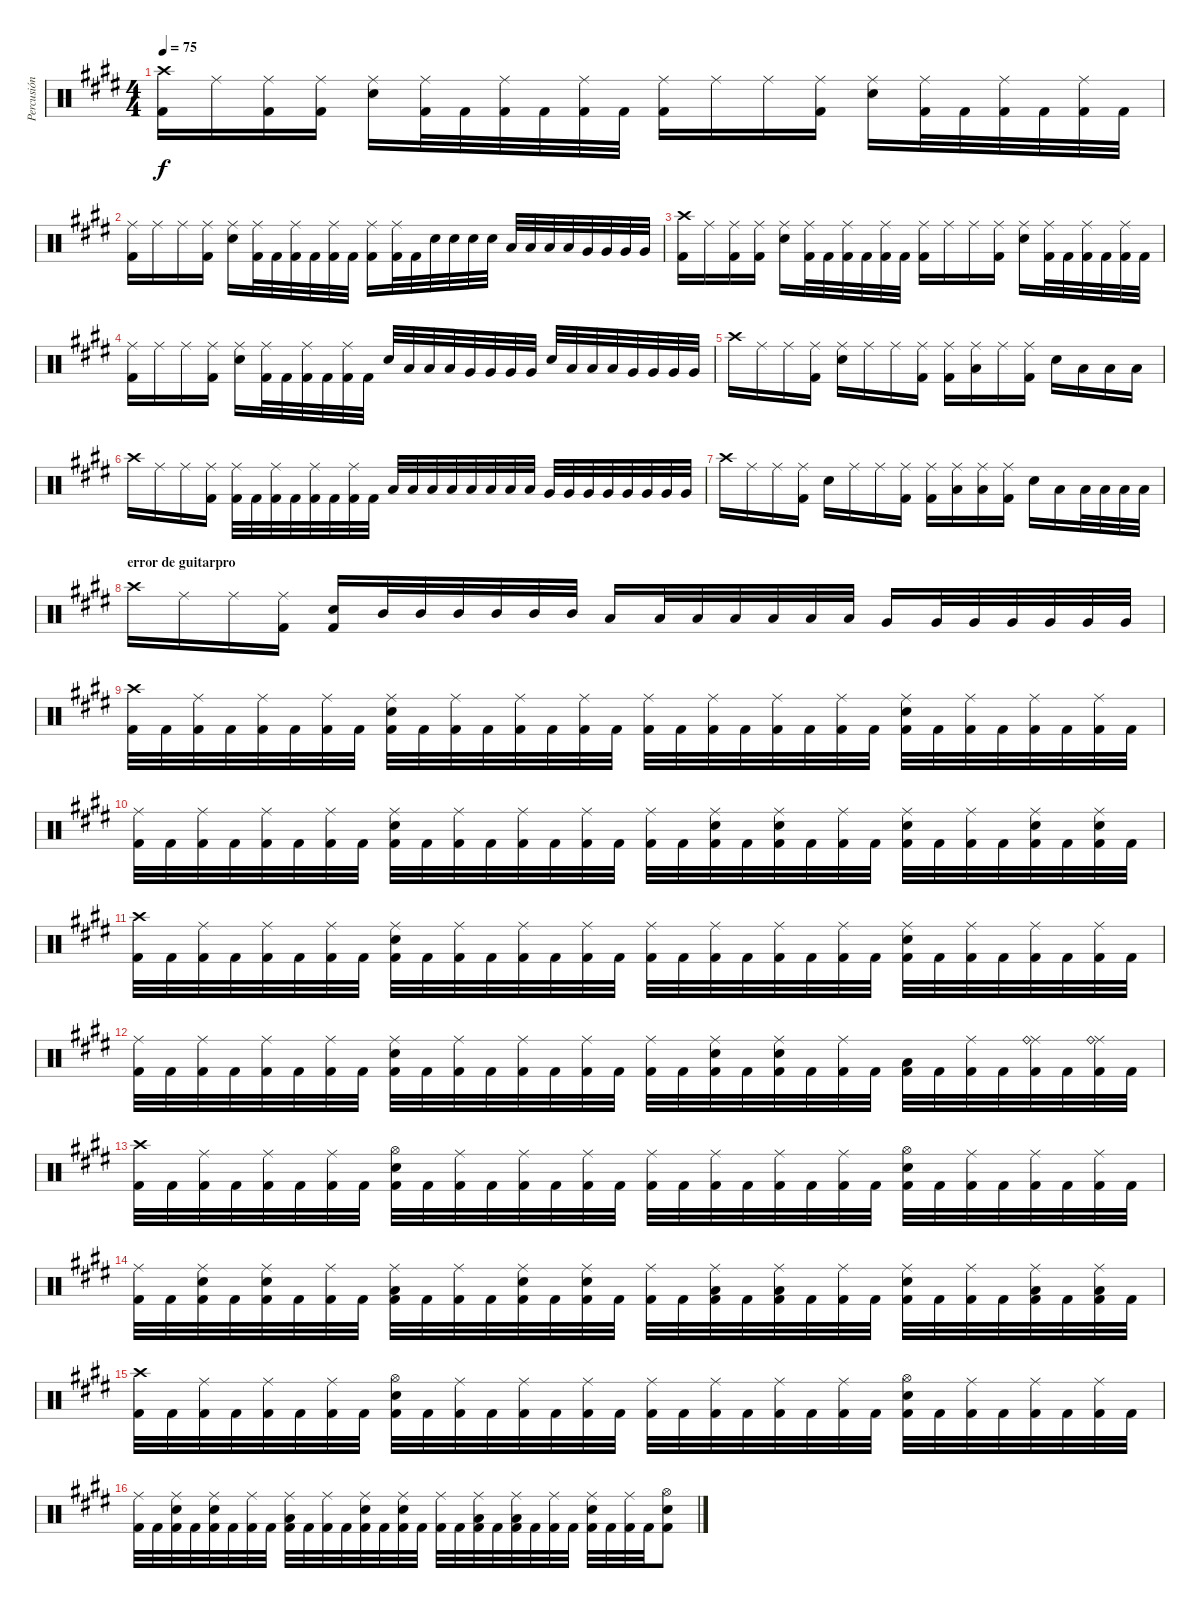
\track ("Percusión" "Percusión") {instrument percussion}
\staff {score}
\articulation defaults
\ts (4 4)
\tempo 75
\clef neutral
\ks e
("Crash high (hit)" "Kick (hit) 2").16{dy f} "Ride (middle)".16 ("Ride (middle)" "Kick (hit) 2").16 ("Ride (middle)" "Kick (hit) 2").16 ("Ride (middle)" "Snare (hit) 2").16 ("Ride (middle)" "Kick (hit) 2").32 "Kick (hit) 2".32 ("Ride (middle)" "Kick (hit) 2").32 "Kick (hit) 2".32 ("Ride (middle)" "Kick (hit) 2").32 "Kick (hit) 2".32 ("Ride (middle)" "Kick (hit) 2").16 "Ride (middle)".16 "Ride (middle)".16 ("Ride (middle)" "Kick (hit) 2").16 ("Ride (middle)" "Snare (hit) 2").16 ("Ride (middle)" "Kick (hit) 2").32 "Kick (hit) 2".32 ("Ride (middle)" "Kick (hit) 2").32 "Kick (hit) 2".32 ("Ride (middle)" "Kick (hit) 2").32 "Kick (hit) 2".32 |
("Ride (middle)" "Kick (hit) 2").16 "Ride (middle)".16 "Ride (middle)".16 ("Ride (middle)" "Kick (hit) 2").16 ("Ride (middle)" "Snare (hit) 2").16 ("Ride (middle)" "Kick (hit) 2").32 "Kick (hit) 2".32 ("Ride (middle)" "Kick (hit) 2").32 "Kick (hit) 2".32 ("Ride (middle)" "Kick (hit) 2").32 "Kick (hit) 2".32 ("Ride (middle)" "Kick (hit) 2").16 ("Ride (middle)" "Kick (hit) 2").32 "Kick (hit) 2".32 "Snare (hit) 2".32 "Snare (hit) 2".32 "Snare (hit) 2".32 "Snare (hit) 2".32 "Low Tom (hit)".32 "Low Tom (hit)".32 "Low Tom (hit)".32 "Low Tom (hit)".32 "Very Low Tom (hit)".32 "Very Low Tom (hit)".32 "Very Low Tom (hit)".32 "Very Low Tom (hit)".32 |
("Crash high (hit)" "Kick (hit) 2").16 "Ride (middle)".16 ("Ride (middle)" "Kick (hit) 2").16 ("Ride (middle)" "Kick (hit) 2").16 ("Ride (middle)" "Snare (hit) 2").16 ("Ride (middle)" "Kick (hit) 2").32 "Kick (hit) 2".32 ("Ride (middle)" "Kick (hit) 2").32 "Kick (hit) 2".32 ("Ride (middle)" "Kick (hit) 2").32 "Kick (hit) 2".32 ("Ride (middle)" "Kick (hit) 2").16 "Ride (middle)".16 "Ride (middle)".16 ("Ride (middle)" "Kick (hit) 2").16 ("Ride (middle)" "Snare (hit) 2").16 ("Ride (middle)" "Kick (hit) 2").32 "Kick (hit) 2".32 ("Ride (middle)" "Kick (hit) 2").32 "Kick (hit) 2".32 ("Ride (middle)" "Kick (hit) 2").32 "Kick (hit) 2".32 |
("Ride (middle)" "Kick (hit) 2").16 "Ride (middle)".16 "Ride (middle)".16 ("Ride (middle)" "Kick (hit) 2").16 ("Ride (middle)" "Snare (hit) 2").16 ("Ride (middle)" "Kick (hit) 2").32 "Kick (hit) 2".32 ("Ride (middle)" "Kick (hit) 2").32 "Kick (hit) 2".32 ("Ride (middle)" "Kick (hit) 2").32 "Kick (hit) 2".32 "Snare (hit) 2".32 "Low Tom (hit)".32 "Low Tom (hit)".32 "Low Tom (hit)".32 "Very Low Tom (hit)".32 "Very Low Tom (hit)".32 "Very Low Tom (hit)".32 "Very Low Tom (hit)".32 "Snare (hit) 2".32 "Low Tom (hit)".32 "Low Tom (hit)".32 "Low Tom (hit)".32 "Very Low Tom (hit)".32 "Very Low Tom (hit)".32 "Very Low Tom (hit)".32 "Very Low Tom (hit)".32 |
"Crash high (hit)".16 "Ride (middle)".16 "Ride (middle)".16 ("Ride (middle)" "Kick (hit) 2").16 ("Electric Snare (hit)" "Ride (middle)").16 "Ride (middle)".16 "Ride (middle)".16 ("Ride (middle)" "Kick (hit) 2").16 ("Ride (middle)" "Kick (hit) 2").16 ("Low Tom (hit)" "Ride (middle)").16 "Ride (middle)".16 ("Ride (middle)" "Kick (hit) 2").16 "Electric Snare (hit)".16 "Low Tom (hit)".16 "Low Tom (hit)".16 "Low Tom (hit)".16 |
"Crash high (hit)".16 "Ride (middle)".16 "Ride (middle)".16 ("Ride (middle)" "Kick (hit) 2").16 ("Ride (middle)" "Kick (hit) 2").32 "Kick (hit) 2".32 ("Ride (middle)" "Kick (hit) 2").32 "Kick (hit) 2".32 ("Ride (middle)" "Kick (hit) 2").32 "Kick (hit) 2".32 ("Ride (middle)" "Kick (hit) 2").32 "Kick (hit) 2".32 "Low Tom (hit)".32 "Low Tom (hit)".32 "Low Tom (hit)".32 "Low Tom (hit)".32 "Low Tom (hit)".32 "Low Tom (hit)".32 "Low Tom (hit)".32 "Low Tom (hit)".32 "Very Low Tom (hit)".32 "Very Low Tom (hit)".32 "Very Low Tom (hit)".32 "Very Low Tom (hit)".32 "Very Low Tom (hit)".32 "Very Low Tom (hit)".32 "Very Low Tom (hit)".32 "Very Low Tom (hit)".32 |
"Crash high (hit)".16 "Ride (middle)".16 "Ride (middle)".16 ("Ride (middle)" "Kick (hit) 2").16 "Electric Snare (hit)".16 "Ride (middle)".16 "Ride (middle)".16 ("Ride (middle)" "Kick (hit) 2").16 ("Ride (middle)" "Kick (hit) 2").16 ("Low Tom (hit)" "Ride (middle)").16 ("Low Tom (hit)" "Ride (middle)").16 ("Ride (middle)" "Kick (hit) 2").16 "Electric Snare (hit)".16 "Low Tom (hit)".16 "Low Tom (hit)".32 "Low Tom (hit)".32 "Low Tom (hit)".32 "Low Tom (hit)".32 |
\section ("" "error de guitarpro")
"Crash high (hit)".16 "Ride (middle)".16 "Ride (middle)".16 ("Ride (middle)" "Kick (hit) 2").16 ("Electric Snare (hit)" "Kick (hit) 2").16 "Mid Tom (hit)".32 "Mid Tom (hit)".32 "Mid Tom (hit)".32 "Mid Tom (hit)".32 "Mid Tom (hit)".32 "Mid Tom (hit)".32 "Low Tom (hit)".16 "Low Tom (hit)".32 "Low Tom (hit)".32 "Low Tom (hit)".32 "Low Tom (hit)".32 "Low Tom (hit)".32 "Low Tom (hit)".32 "Very Low Tom (hit)".16 "Very Low Tom (hit)".32 "Very Low Tom (hit)".32 "Very Low Tom (hit)".32 "Very Low Tom (hit)".32 "Very Low Tom (hit)".32 "Very Low Tom (hit)".32 |
("Crash high (hit)" "Kick (hit) 2").32 "Kick (hit) 2".32 ("Ride (middle)" "Kick (hit) 2").32 "Kick (hit) 2".32 ("Ride (middle)" "Kick (hit) 2").32 "Kick (hit) 2".32 ("Ride (middle)" "Kick (hit) 2").32 "Kick (hit) 2".32 ("Ride (middle)" "Electric Snare (hit)" "Kick (hit) 2").32 "Kick (hit) 2".32 ("Ride (middle)" "Kick (hit) 2").32 "Kick (hit) 2".32 ("Ride (middle)" "Kick (hit) 2").32 "Kick (hit) 2".32 ("Ride (middle)" "Kick (hit) 2").32 "Kick (hit) 2".32 ("Ride (middle)" "Kick (hit) 2").32 "Kick (hit) 2".32 ("Ride (middle)" "Kick (hit) 2").32 "Kick (hit) 2".32 ("Ride (middle)" "Kick (hit) 2").32 "Kick (hit) 2".32 ("Ride (middle)" "Kick (hit) 2").32 "Kick (hit) 2".32 ("Ride (middle)" "Electric Snare (hit)" "Kick (hit) 2").32 "Kick (hit) 2".32 ("Ride (middle)" "Kick (hit) 2").32 "Kick (hit) 2".32 ("Ride (middle)" "Kick (hit) 2").32 "Kick (hit) 2".32 ("Ride (middle)" "Kick (hit) 2").32 "Kick (hit) 2".32 |
("Ride (middle)" "Kick (hit) 2").32 "Kick (hit) 2".32 ("Ride (middle)" "Kick (hit) 2").32 "Kick (hit) 2".32 ("Ride (middle)" "Kick (hit) 2").32 "Kick (hit) 2".32 ("Ride (middle)" "Kick (hit) 2").32 "Kick (hit) 2".32 ("Ride (middle)" "Electric Snare (hit)" "Kick (hit) 2").32 "Kick (hit) 2".32 ("Ride (middle)" "Kick (hit) 2").32 "Kick (hit) 2".32 ("Ride (middle)" "Kick (hit) 2").32 "Kick (hit) 2".32 ("Ride (middle)" "Kick (hit) 2").32 "Kick (hit) 2".32 ("Ride (middle)" "Kick (hit) 2").32 "Kick (hit) 2".32 ("Ride (middle)" "Electric Snare (hit)" "Kick (hit) 2").32 "Kick (hit) 2".32 ("Ride (middle)" "Electric Snare (hit)" "Kick (hit) 2").32 "Kick (hit) 2".32 ("Ride (middle)" "Kick (hit) 2").32 "Kick (hit) 2".32 ("Ride (middle)" "Electric Snare (hit)" "Kick (hit) 2").32 "Kick (hit) 2".32 ("Ride (middle)" "Kick (hit) 2").32 "Kick (hit) 2".32 ("Ride (middle)" "Electric Snare (hit)" "Kick (hit) 2").32 "Kick (hit) 2".32 ("Ride (middle)" "Electric Snare (hit)" "Kick (hit) 2").32 "Kick (hit) 2".32 |
("Crash high (hit)" "Kick (hit) 2").32 "Kick (hit) 2".32 ("Ride (middle)" "Kick (hit) 2").32 "Kick (hit) 2".32 ("Ride (middle)" "Kick (hit) 2").32 "Kick (hit) 2".32 ("Ride (middle)" "Kick (hit) 2").32 "Kick (hit) 2".32 ("Ride (middle)" "Electric Snare (hit)" "Kick (hit) 2").32 "Kick (hit) 2".32 ("Ride (middle)" "Kick (hit) 2").32 "Kick (hit) 2".32 ("Ride (middle)" "Kick (hit) 2").32 "Kick (hit) 2".32 ("Ride (middle)" "Kick (hit) 2").32 "Kick (hit) 2".32 ("Ride (middle)" "Kick (hit) 2").32 "Kick (hit) 2".32 ("Ride (middle)" "Kick (hit) 2").32 "Kick (hit) 2".32 ("Ride (middle)" "Kick (hit) 2").32 "Kick (hit) 2".32 ("Ride (middle)" "Kick (hit) 2").32 "Kick (hit) 2".32 ("Ride (middle)" "Electric Snare (hit)" "Kick (hit) 2").32 "Kick (hit) 2".32 ("Ride (middle)" "Kick (hit) 2").32 "Kick (hit) 2".32 ("Ride (middle)" "Kick (hit) 2").32 "Kick (hit) 2".32 ("Ride (middle)" "Kick (hit) 2").32 "Kick (hit) 2".32 |
("Ride (middle)" "Kick (hit) 2").32 "Kick (hit) 2".32 ("Ride (middle)" "Kick (hit) 2").32 "Kick (hit) 2".32 ("Ride (middle)" "Kick (hit) 2").32 "Kick (hit) 2".32 ("Ride (middle)" "Kick (hit) 2").32 "Kick (hit) 2".32 ("Ride (middle)" "Electric Snare (hit)" "Kick (hit) 2").32 "Kick (hit) 2".32 ("Ride (middle)" "Kick (hit) 2").32 "Kick (hit) 2".32 ("Ride (middle)" "Kick (hit) 2").32 "Kick (hit) 2".32 ("Ride (middle)" "Kick (hit) 2").32 "Kick (hit) 2".32 ("Ride (middle)" "Kick (hit) 2").32 "Kick (hit) 2".32 ("Ride (middle)" "Electric Snare (hit)" "Kick (hit) 2").32 "Kick (hit) 2".32 ("Ride (middle)" "Electric Snare (hit)" "Kick (hit) 2").32 "Kick (hit) 2".32 ("Ride (middle)" "Kick (hit) 2").32 "Kick (hit) 2".32 ("Low Tom (hit)" "Kick (hit) 2").32 "Kick (hit) 2".32 ("Ride (middle)" "Kick (hit) 2").32 "Kick (hit) 2".32 ("Ride (middle)" "Ride (bell)" "Kick (hit) 2").32 "Kick (hit) 2".32 ("Ride (middle)" "Ride (bell)" "Kick (hit) 2").32 "Kick (hit) 2".32 |
("Crash high (hit)" "Kick (hit) 2").32 "Kick (hit) 2".32 ("Ride (middle)" "Kick (hit) 2").32 "Kick (hit) 2".32 ("Ride (middle)" "Kick (hit) 2").32 "Kick (hit) 2".32 ("Ride (middle)" "Kick (hit) 2").32 "Kick (hit) 2".32 ("Hi-Hat (open)" "Electric Snare (hit)" "Kick (hit) 2").32 "Kick (hit) 2".32 ("Ride (middle)" "Kick (hit) 2").32 "Kick (hit) 2".32 ("Ride (middle)" "Kick (hit) 2").32 "Kick (hit) 2".32 ("Ride (middle)" "Kick (hit) 2").32 "Kick (hit) 2".32 ("Ride (middle)" "Kick (hit) 2").32 "Kick (hit) 2".32 ("Ride (middle)" "Kick (hit) 2").32 "Kick (hit) 2".32 ("Ride (middle)" "Kick (hit) 2").32 "Kick (hit) 2".32 ("Ride (middle)" "Kick (hit) 2").32 "Kick (hit) 2".32 ("Hi-Hat (open)" "Electric Snare (hit)" "Kick (hit) 2").32 "Kick (hit) 2".32 ("Ride (middle)" "Kick (hit) 2").32 "Kick (hit) 2".32 ("Ride (middle)" "Kick (hit) 2").32 "Kick (hit) 2".32 ("Ride (middle)" "Kick (hit) 2").32 "Kick (hit) 2".32 |
("Ride (middle)" "Kick (hit) 2").32 "Kick (hit) 2".32 ("Ride (middle)" "Electric Snare (hit)" "Kick (hit) 2").32 "Kick (hit) 2".32 ("Ride (middle)" "Electric Snare (hit)" "Kick (hit) 2").32 "Kick (hit) 2".32 ("Ride (middle)" "Kick (hit) 2").32 "Kick (hit) 2".32 ("Ride (middle)" "Low Tom (hit)" "Kick (hit) 2").32 "Kick (hit) 2".32 ("Ride (middle)" "Kick (hit) 2").32 "Kick (hit) 2".32 ("Ride (middle)" "Electric Snare (hit)" "Kick (hit) 2").32 "Kick (hit) 2".32 ("Ride (middle)" "Electric Snare (hit)" "Kick (hit) 2").32 "Kick (hit) 2".32 ("Ride (middle)" "Kick (hit) 2").32 "Kick (hit) 2".32 ("Ride (middle)" "Low Tom (hit)" "Kick (hit) 2").32 "Kick (hit) 2".32 ("Ride (middle)" "Low Tom (hit)" "Kick (hit) 2").32 "Kick (hit) 2".32 ("Ride (middle)" "Kick (hit) 2").32 "Kick (hit) 2".32 ("Ride (middle)" "Electric Snare (hit)" "Kick (hit) 2").32 "Kick (hit) 2".32 ("Ride (middle)" "Kick (hit) 2").32 "Kick (hit) 2".32 ("Ride (middle)" "Low Tom (hit)" "Kick (hit) 2").32 "Kick (hit) 2".32 ("Ride (middle)" "Low Tom (hit)" "Kick (hit) 2").32 "Kick (hit) 2".32 |
("Crash high (hit)" "Kick (hit) 2").32 "Kick (hit) 2".32 ("Ride (middle)" "Kick (hit) 2").32 "Kick (hit) 2".32 ("Ride (middle)" "Kick (hit) 2").32 "Kick (hit) 2".32 ("Ride (middle)" "Kick (hit) 2").32 "Kick (hit) 2".32 ("Hi-Hat (open)" "Electric Snare (hit)" "Kick (hit) 2").32 "Kick (hit) 2".32 ("Ride (middle)" "Kick (hit) 2").32 "Kick (hit) 2".32 ("Ride (middle)" "Kick (hit) 2").32 "Kick (hit) 2".32 ("Ride (middle)" "Kick (hit) 2").32 "Kick (hit) 2".32 ("Ride (middle)" "Kick (hit) 2").32 "Kick (hit) 2".32 ("Ride (middle)" "Kick (hit) 2").32 "Kick (hit) 2".32 ("Ride (middle)" "Kick (hit) 2").32 "Kick (hit) 2".32 ("Ride (middle)" "Kick (hit) 2").32 "Kick (hit) 2".32 ("Hi-Hat (open)" "Electric Snare (hit)" "Kick (hit) 2").32 "Kick (hit) 2".32 ("Ride (middle)" "Kick (hit) 2").32 "Kick (hit) 2".32 ("Ride (middle)" "Kick (hit) 2").32 "Kick (hit) 2".32 ("Ride (middle)" "Kick (hit) 2").32 "Kick (hit) 2".32 |
("Ride (middle)" "Kick (hit) 2").32 "Kick (hit) 2".32 ("Ride (middle)" "Electric Snare (hit)" "Kick (hit) 2").32 "Kick (hit) 2".32 ("Ride (middle)" "Electric Snare (hit)" "Kick (hit) 2").32 "Kick (hit) 2".32 ("Ride (middle)" "Kick (hit) 2").32 "Kick (hit) 2".32 ("Ride (middle)" "Low Tom (hit)" "Kick (hit) 2").32 "Kick (hit) 2".32 ("Ride (middle)" "Kick (hit) 2").32 "Kick (hit) 2".32 ("Ride (middle)" "Electric Snare (hit)" "Kick (hit) 2").32 "Kick (hit) 2".32 ("Ride (middle)" "Electric Snare (hit)" "Kick (hit) 2").32 "Kick (hit) 2".32 ("Ride (middle)" "Kick (hit) 2").32 "Kick (hit) 2".32 ("Ride (middle)" "Low Tom (hit)" "Kick (hit) 2").32 "Kick (hit) 2".32 ("Ride (middle)" "Low Tom (hit)" "Kick (hit) 2").32 "Kick (hit) 2".32 ("Ride (middle)" "Kick (hit) 2").32 "Kick (hit) 2".32 ("Ride (middle)" "Electric Snare (hit)" "Kick (hit) 2").32 "Kick (hit) 2".32 ("Ride (middle)" "Kick (hit) 2").32 "Kick (hit) 2".32 ("Hi-Hat (open)" "Snare (hit) 2" "Kick (hit) 2").8
